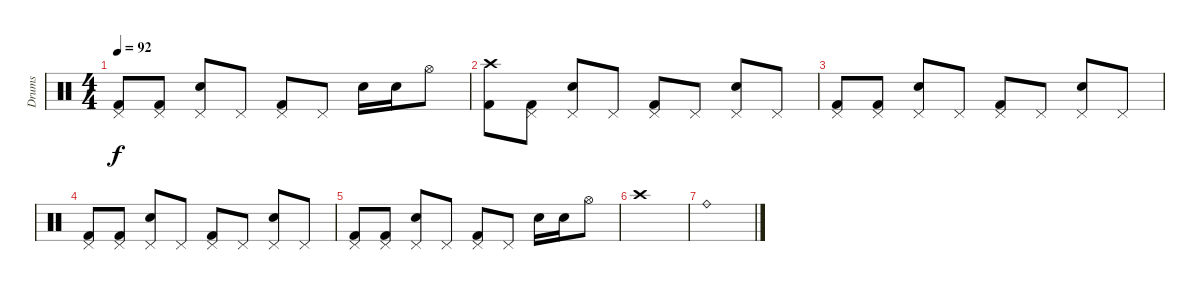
\track ("Drums" "Drums") {instrument percussion}
\staff {score}
\articulation defaults
\ts (4 4)
\tempo 92
\clef neutral
\ks c
("Pedal Hi-Hat (hit)" "Kick (hit) 2").8{dy f} ("Pedal Hi-Hat (hit)" "Kick (hit) 2").8 ("Pedal Hi-Hat (hit)" "Electric Snare (hit)").8 "Pedal Hi-Hat (hit)".8 ("Pedal Hi-Hat (hit)" "Kick (hit) 2").8 "Pedal Hi-Hat (hit)".8 "Electric Snare (hit)".16 "Electric Snare (hit)".16 "Hi-Hat (open)".8 |
("Crash high (hit)" "Kick (hit) 2").8 ("Pedal Hi-Hat (hit)" "Kick (hit) 2").8 ("Pedal Hi-Hat (hit)" "Electric Snare (hit)").8 "Pedal Hi-Hat (hit)".8 ("Pedal Hi-Hat (hit)" "Kick (hit) 2").8 "Pedal Hi-Hat (hit)".8 ("Pedal Hi-Hat (hit)" "Electric Snare (hit)").8 "Pedal Hi-Hat (hit)".8 |
("Pedal Hi-Hat (hit)" "Kick (hit) 2").8 ("Pedal Hi-Hat (hit)" "Kick (hit) 2").8 ("Pedal Hi-Hat (hit)" "Electric Snare (hit)").8 "Pedal Hi-Hat (hit)".8 ("Pedal Hi-Hat (hit)" "Kick (hit) 2").8 "Pedal Hi-Hat (hit)".8 ("Pedal Hi-Hat (hit)" "Electric Snare (hit)").8 "Pedal Hi-Hat (hit)".8 |
("Pedal Hi-Hat (hit)" "Kick (hit) 2").8 ("Pedal Hi-Hat (hit)" "Kick (hit) 2").8 ("Pedal Hi-Hat (hit)" "Electric Snare (hit)").8 "Pedal Hi-Hat (hit)".8 ("Pedal Hi-Hat (hit)" "Kick (hit) 2").8 "Pedal Hi-Hat (hit)".8 ("Pedal Hi-Hat (hit)" "Electric Snare (hit)").8 "Pedal Hi-Hat (hit)".8 |
("Pedal Hi-Hat (hit)" "Kick (hit) 2").8 ("Pedal Hi-Hat (hit)" "Kick (hit) 2").8 ("Pedal Hi-Hat (hit)" "Electric Snare (hit)").8 "Pedal Hi-Hat (hit)".8 ("Pedal Hi-Hat (hit)" "Kick (hit) 2").8 "Pedal Hi-Hat (hit)".8 "Electric Snare (hit)".16 "Electric Snare (hit)".16 "Hi-Hat (open)".8 |
"Crash high (hit)".1 |
"Ride (bell)".1
